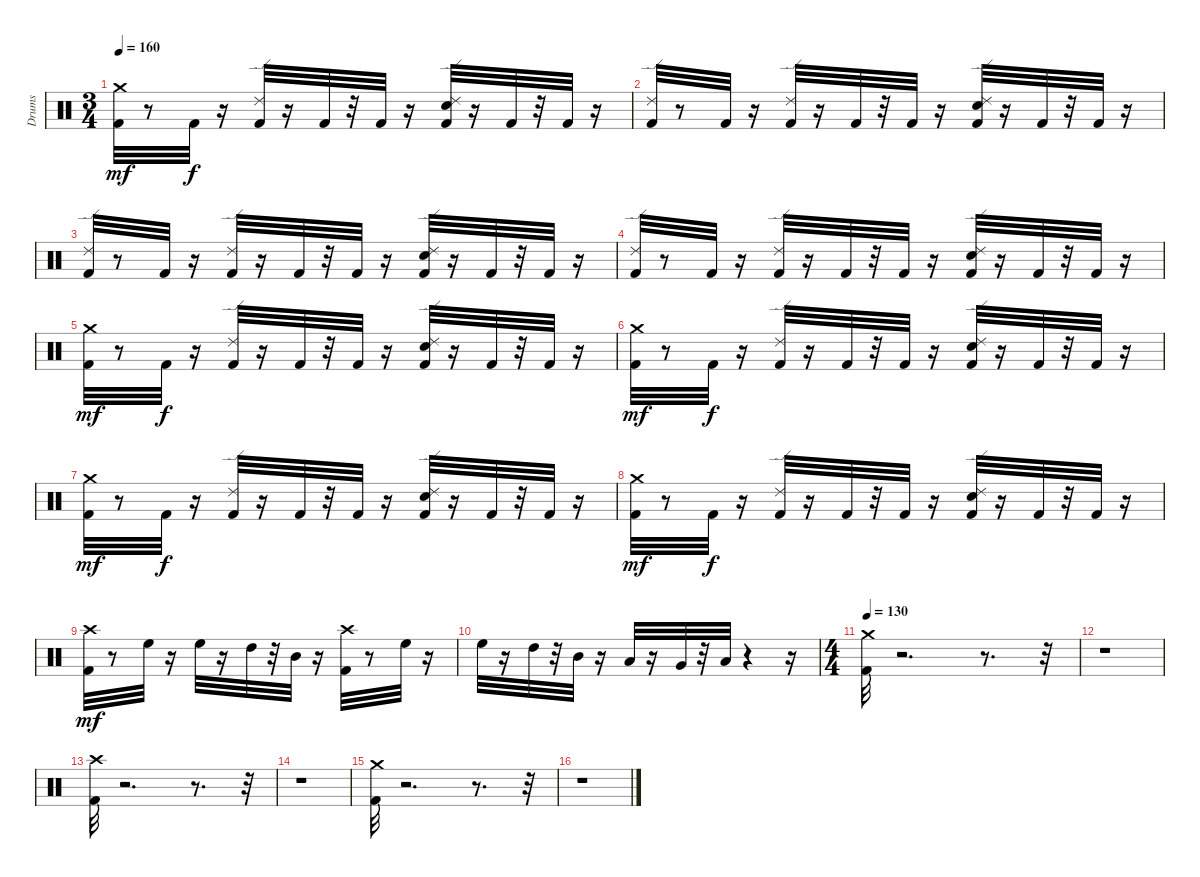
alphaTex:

\track ("Drums" "Drums") {instrument percussion}
\staff {score}
\articulation defaults
\ts (3 4)
\tempo 160
\clef neutral
\ks c
("Kick (hit) 2" "Crash medium (hit)").32{dy mf} r.8 "Kick (hit) 2".32{dy f} r.16 ("Kick (hit) 2" "Ride (edge) 2").32 r.16 "Kick (hit) 2".32 r.32 "Kick (hit) 2".32 r.16 ("Kick (hit) 2" "Snare (hit) 2" "Ride (edge) 2").32 r.16 "Kick (hit) 2".32 r.32 "Kick (hit) 2".32 r.16 |
("Kick (hit) 2" "Ride (edge) 2").32 r.8 "Kick (hit) 2".32 r.16 ("Kick (hit) 2" "Ride (edge) 2").32 r.16 "Kick (hit) 2".32 r.32 "Kick (hit) 2".32 r.16 ("Kick (hit) 2" "Snare (hit) 2" "Ride (edge) 2").32 r.16 "Kick (hit) 2".32 r.32 "Kick (hit) 2".32 r.16 |
("Kick (hit) 2" "Ride (edge) 2").32 r.8 "Kick (hit) 2".32 r.16 ("Kick (hit) 2" "Ride (edge) 2").32 r.16 "Kick (hit) 2".32 r.32 "Kick (hit) 2".32 r.16 ("Kick (hit) 2" "Snare (hit) 2" "Ride (edge) 2").32 r.16 "Kick (hit) 2".32 r.32 "Kick (hit) 2".32 r.16 |
("Kick (hit) 2" "Ride (edge) 2").32 r.8 "Kick (hit) 2".32 r.16 ("Kick (hit) 2" "Ride (edge) 2").32 r.16 "Kick (hit) 2".32 r.32 "Kick (hit) 2".32 r.16 ("Kick (hit) 2" "Snare (hit) 2" "Ride (edge) 2").32 r.16 "Kick (hit) 2".32 r.32 "Kick (hit) 2".32 r.16 |
("Kick (hit) 2" "Crash medium (hit)").32{dy mf} r.8 "Kick (hit) 2".32{dy f} r.16 ("Kick (hit) 2" "Ride (edge) 2").32 r.16 "Kick (hit) 2".32 r.32 "Kick (hit) 2".32 r.16 ("Kick (hit) 2" "Snare (hit) 2" "Ride (edge) 2").32 r.16 "Kick (hit) 2".32 r.32 "Kick (hit) 2".32 r.16 |
("Kick (hit) 2" "Crash medium (hit)").32{dy mf} r.8 "Kick (hit) 2".32{dy f} r.16 ("Kick (hit) 2" "Ride (edge) 2").32 r.16 "Kick (hit) 2".32 r.32 "Kick (hit) 2".32 r.16 ("Kick (hit) 2" "Snare (hit) 2" "Ride (edge) 2").32 r.16 "Kick (hit) 2".32 r.32 "Kick (hit) 2".32 r.16 |
("Kick (hit) 2" "Crash medium (hit)").32{dy mf} r.8 "Kick (hit) 2".32{dy f} r.16 ("Kick (hit) 2" "Ride (edge) 2").32 r.16 "Kick (hit) 2".32 r.32 "Kick (hit) 2".32 r.16 ("Kick (hit) 2" "Snare (hit) 2" "Ride (edge) 2").32 r.16 "Kick (hit) 2".32 r.32 "Kick (hit) 2".32 r.16 |
("Kick (hit) 2" "Crash medium (hit)").32{dy mf} r.8 "Kick (hit) 2".32{dy f} r.16 ("Kick (hit) 2" "Ride (edge) 2").32 r.16 "Kick (hit) 2".32 r.32 "Kick (hit) 2".32 r.16 ("Kick (hit) 2" "Snare (hit) 2" "Ride (edge) 2").32 r.16 "Kick (hit) 2".32 r.32 "Kick (hit) 2".32 r.16 |
("Kick (hit) 2" "Crash high (hit)").32{dy mf} r.8 "High Floor Tom (hit)".32 r.16 "High Floor Tom (hit)".32 r.16 "High Tom (hit)".32 r.32 "Mid Tom (hit)".32 r.16 ("Kick (hit) 2" "Crash high (hit)").32 r.8 "High Floor Tom (hit)".32 r.16 |
"High Floor Tom (hit)".32 r.16 "High Tom (hit)".32 r.32 "Mid Tom (hit)".32 r.16 "Low Tom (hit)".32 r.16 "Very Low Tom (hit)".32 r.32 "Low Floor Tom (hit)".32 r.4 r.16 |
\ts (4 4)
\tempo 130
("Kick (hit) 2" "Crash medium (hit)").32 r.2{d} r.8{d} r.32 |
r.1 |
("Kick (hit) 2" "Crash high (hit)").32 r.2{d} r.8{d} r.32 |
r.1 |
("Kick (hit) 2" "Crash medium (hit)").32 r.2{d} r.8{d} r.32 |
r.1
